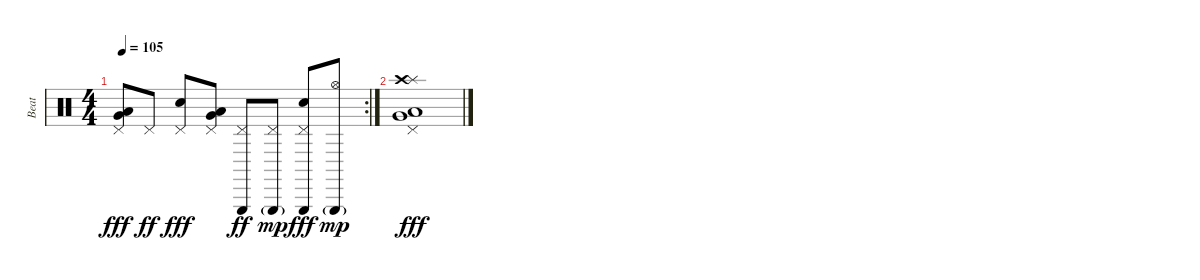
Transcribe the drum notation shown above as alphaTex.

\track ("Beat" "Beat") {instrument percussion}
\staff {score}
\articulation defaults
\rc 2
\ts (4 4)
\tempo 105
\clef neutral
\ks c
("Pedal Hi-Hat (hit)" "Low Floor Tom (hit)" "Very Low Tom (hit)").8{dy fff} "Pedal Hi-Hat (hit)".8{dy ff} ("Pedal Hi-Hat (hit)" "Hand Clap (hit)").8{dy fff} ("Pedal Hi-Hat (hit)" "Low Floor Tom (hit)" "Very Low Tom (hit)").8 ("Pedal Hi-Hat (hit)" "Triangle (hit)").8{dy ff} ("Pedal Hi-Hat (hit)" "Triangle (hit)"{g}).8{dy mp} ("Pedal Hi-Hat (hit)" "Triangle (hit)" "Hand Clap (hit)").8{dy fff} ("Hi-Hat (open)" "Triangle (hit)"{g}).8{dy mp} |
("Pedal Hi-Hat (hit)" "Splash (hit)" "Crash high (hit)" "Low Floor Tom (hit)" "Very Low Tom (hit)").1{dy fff}
